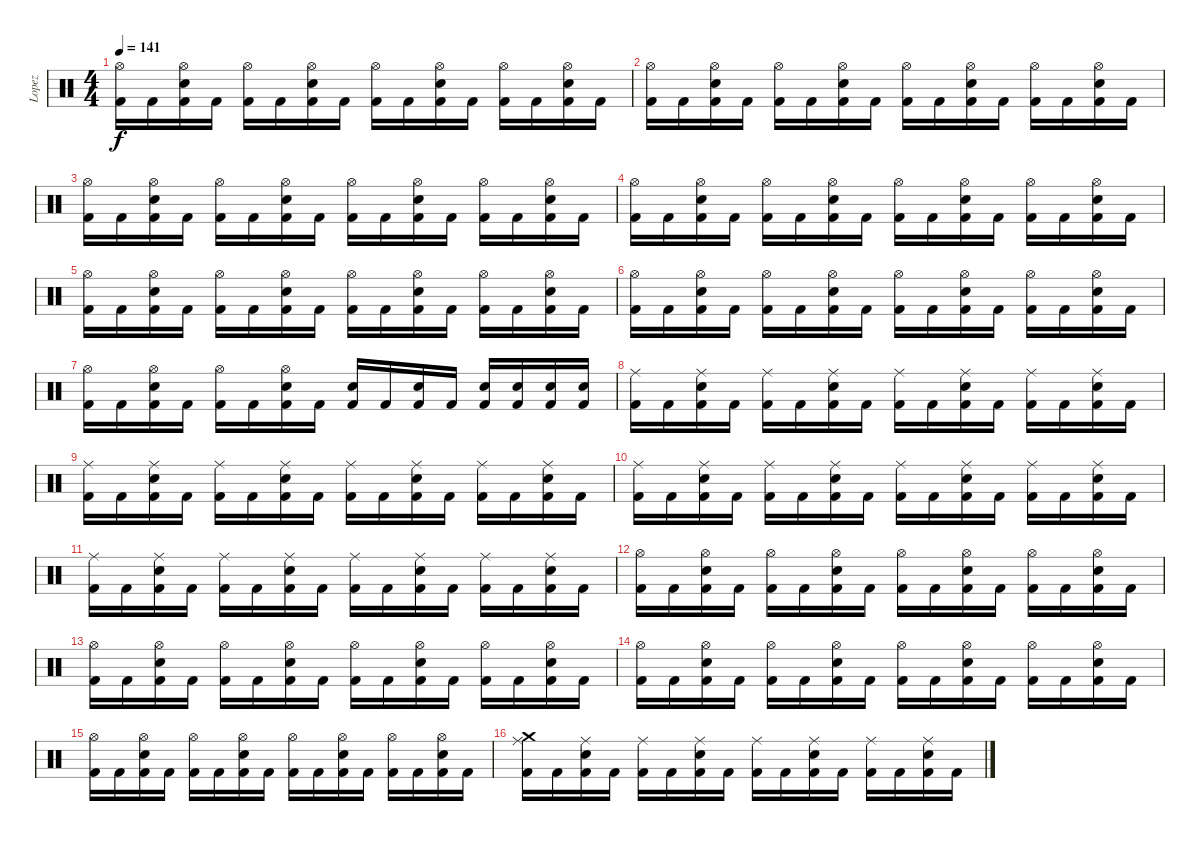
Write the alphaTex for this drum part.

\track ("Lopez" "Lopez") {instrument percussion}
\staff {score}
\articulation defaults
\ts (4 4)
\tempo 141
\clef neutral
\ks c
("Hi-Hat (open)" "Kick (hit) 2").16{dy f} "Kick (hit) 2".16 ("Hi-Hat (open)" "Electric Snare (hit)" "Kick (hit) 2").16 "Kick (hit) 2".16 ("Hi-Hat (open)" "Kick (hit) 2").16 "Kick (hit) 2".16 ("Hi-Hat (open)" "Electric Snare (hit)" "Kick (hit) 2").16 "Kick (hit) 2".16 ("Hi-Hat (open)" "Kick (hit) 2").16 "Kick (hit) 2".16 ("Hi-Hat (open)" "Electric Snare (hit)" "Kick (hit) 2").16 "Kick (hit) 2".16 ("Hi-Hat (open)" "Kick (hit) 2").16 "Kick (hit) 2".16 ("Hi-Hat (open)" "Electric Snare (hit)" "Kick (hit) 2").16 "Kick (hit) 2".16 |
("Hi-Hat (open)" "Kick (hit) 2").16 "Kick (hit) 2".16 ("Hi-Hat (open)" "Electric Snare (hit)" "Kick (hit) 2").16 "Kick (hit) 2".16 ("Hi-Hat (open)" "Kick (hit) 2").16 "Kick (hit) 2".16 ("Hi-Hat (open)" "Electric Snare (hit)" "Kick (hit) 2").16 "Kick (hit) 2".16 ("Hi-Hat (open)" "Kick (hit) 2").16 "Kick (hit) 2".16 ("Hi-Hat (open)" "Electric Snare (hit)" "Kick (hit) 2").16 "Kick (hit) 2".16 ("Hi-Hat (open)" "Kick (hit) 2").16 "Kick (hit) 2".16 ("Hi-Hat (open)" "Electric Snare (hit)" "Kick (hit) 2").16 "Kick (hit) 2".16 |
("Hi-Hat (open)" "Kick (hit) 2").16 "Kick (hit) 2".16 ("Hi-Hat (open)" "Electric Snare (hit)" "Kick (hit) 2").16 "Kick (hit) 2".16 ("Hi-Hat (open)" "Kick (hit) 2").16 "Kick (hit) 2".16 ("Hi-Hat (open)" "Electric Snare (hit)" "Kick (hit) 2").16 "Kick (hit) 2".16 ("Hi-Hat (open)" "Kick (hit) 2").16 "Kick (hit) 2".16 ("Hi-Hat (open)" "Electric Snare (hit)" "Kick (hit) 2").16 "Kick (hit) 2".16 ("Hi-Hat (open)" "Kick (hit) 2").16 "Kick (hit) 2".16 ("Hi-Hat (open)" "Electric Snare (hit)" "Kick (hit) 2").16 "Kick (hit) 2".16 |
("Hi-Hat (open)" "Kick (hit) 2").16 "Kick (hit) 2".16 ("Hi-Hat (open)" "Electric Snare (hit)" "Kick (hit) 2").16 "Kick (hit) 2".16 ("Hi-Hat (open)" "Kick (hit) 2").16 "Kick (hit) 2".16 ("Hi-Hat (open)" "Electric Snare (hit)" "Kick (hit) 2").16 "Kick (hit) 2".16 ("Hi-Hat (open)" "Kick (hit) 2").16 "Kick (hit) 2".16 ("Hi-Hat (open)" "Electric Snare (hit)" "Kick (hit) 2").16 "Kick (hit) 2".16 ("Hi-Hat (open)" "Kick (hit) 2").16 "Kick (hit) 2".16 ("Hi-Hat (open)" "Electric Snare (hit)" "Kick (hit) 2").16 "Kick (hit) 2".16 |
("Hi-Hat (open)" "Kick (hit) 2").16 "Kick (hit) 2".16 ("Hi-Hat (open)" "Electric Snare (hit)" "Kick (hit) 2").16 "Kick (hit) 2".16 ("Hi-Hat (open)" "Kick (hit) 2").16 "Kick (hit) 2".16 ("Hi-Hat (open)" "Electric Snare (hit)" "Kick (hit) 2").16 "Kick (hit) 2".16 ("Hi-Hat (open)" "Kick (hit) 2").16 "Kick (hit) 2".16 ("Hi-Hat (open)" "Electric Snare (hit)" "Kick (hit) 2").16 "Kick (hit) 2".16 ("Hi-Hat (open)" "Kick (hit) 2").16 "Kick (hit) 2".16 ("Hi-Hat (open)" "Electric Snare (hit)" "Kick (hit) 2").16 "Kick (hit) 2".16 |
("Hi-Hat (open)" "Kick (hit) 2").16 "Kick (hit) 2".16 ("Hi-Hat (open)" "Electric Snare (hit)" "Kick (hit) 2").16 "Kick (hit) 2".16 ("Hi-Hat (open)" "Kick (hit) 2").16 "Kick (hit) 2".16 ("Hi-Hat (open)" "Electric Snare (hit)" "Kick (hit) 2").16 "Kick (hit) 2".16 ("Hi-Hat (open)" "Kick (hit) 2").16 "Kick (hit) 2".16 ("Hi-Hat (open)" "Electric Snare (hit)" "Kick (hit) 2").16 "Kick (hit) 2".16 ("Hi-Hat (open)" "Kick (hit) 2").16 "Kick (hit) 2".16 ("Hi-Hat (open)" "Electric Snare (hit)" "Kick (hit) 2").16 "Kick (hit) 2".16 |
("Hi-Hat (open)" "Kick (hit) 2").16 "Kick (hit) 2".16 ("Hi-Hat (open)" "Electric Snare (hit)" "Kick (hit) 2").16 "Kick (hit) 2".16 ("Hi-Hat (open)" "Kick (hit) 2").16 "Kick (hit) 2".16 ("Hi-Hat (open)" "Electric Snare (hit)" "Kick (hit) 2").16 "Kick (hit) 2".16 ("Electric Snare (hit)" "Kick (hit) 2").16 "Kick (hit) 2".16 ("Electric Snare (hit)" "Kick (hit) 2").16 "Kick (hit) 2".16 ("Electric Snare (hit)" "Kick (hit) 2").16 ("Electric Snare (hit)" "Kick (hit) 2").16 ("Electric Snare (hit)" "Kick (hit) 2").16 ("Electric Snare (hit)" "Kick (hit) 2").16 |
("Ride (middle)" "Kick (hit) 2").16 "Kick (hit) 2".16 ("Ride (middle)" "Electric Snare (hit)" "Kick (hit) 2").16 "Kick (hit) 2".16 ("Ride (middle)" "Kick (hit) 2").16 "Kick (hit) 2".16 ("Ride (middle)" "Electric Snare (hit)" "Kick (hit) 2").16 "Kick (hit) 2".16 ("Ride (middle)" "Kick (hit) 2").16 "Kick (hit) 2".16 ("Ride (middle)" "Electric Snare (hit)" "Kick (hit) 2").16 "Kick (hit) 2".16 ("Ride (middle)" "Kick (hit) 2").16 "Kick (hit) 2".16 ("Ride (middle)" "Electric Snare (hit)" "Kick (hit) 2").16 "Kick (hit) 2".16 |
("Ride (middle)" "Kick (hit) 2").16 "Kick (hit) 2".16 ("Ride (middle)" "Electric Snare (hit)" "Kick (hit) 2").16 "Kick (hit) 2".16 ("Ride (middle)" "Kick (hit) 2").16 "Kick (hit) 2".16 ("Ride (middle)" "Electric Snare (hit)" "Kick (hit) 2").16 "Kick (hit) 2".16 ("Ride (middle)" "Kick (hit) 2").16 "Kick (hit) 2".16 ("Ride (middle)" "Electric Snare (hit)" "Kick (hit) 2").16 "Kick (hit) 2".16 ("Ride (middle)" "Kick (hit) 2").16 "Kick (hit) 2".16 ("Ride (middle)" "Electric Snare (hit)" "Kick (hit) 2").16 "Kick (hit) 2".16 |
("Ride (middle)" "Kick (hit) 2").16 "Kick (hit) 2".16 ("Ride (middle)" "Electric Snare (hit)" "Kick (hit) 2").16 "Kick (hit) 2".16 ("Ride (middle)" "Kick (hit) 2").16 "Kick (hit) 2".16 ("Ride (middle)" "Electric Snare (hit)" "Kick (hit) 2").16 "Kick (hit) 2".16 ("Ride (middle)" "Kick (hit) 2").16 "Kick (hit) 2".16 ("Ride (middle)" "Electric Snare (hit)" "Kick (hit) 2").16 "Kick (hit) 2".16 ("Ride (middle)" "Kick (hit) 2").16 "Kick (hit) 2".16 ("Ride (middle)" "Electric Snare (hit)" "Kick (hit) 2").16 "Kick (hit) 2".16 |
("Ride (middle)" "Kick (hit) 2").16 "Kick (hit) 2".16 ("Ride (middle)" "Electric Snare (hit)" "Kick (hit) 2").16 "Kick (hit) 2".16 ("Ride (middle)" "Kick (hit) 2").16 "Kick (hit) 2".16 ("Ride (middle)" "Electric Snare (hit)" "Kick (hit) 2").16 "Kick (hit) 2".16 ("Ride (middle)" "Kick (hit) 2").16 "Kick (hit) 2".16 ("Ride (middle)" "Electric Snare (hit)" "Kick (hit) 2").16 "Kick (hit) 2".16 ("Ride (middle)" "Kick (hit) 2").16 "Kick (hit) 2".16 ("Ride (middle)" "Electric Snare (hit)" "Kick (hit) 2").16 "Kick (hit) 2".16 |
("Hi-Hat (open)" "Kick (hit) 2").16 "Kick (hit) 2".16 ("Hi-Hat (open)" "Electric Snare (hit)" "Kick (hit) 2").16 "Kick (hit) 2".16 ("Hi-Hat (open)" "Kick (hit) 2").16 "Kick (hit) 2".16 ("Hi-Hat (open)" "Electric Snare (hit)" "Kick (hit) 2").16 "Kick (hit) 2".16 ("Hi-Hat (open)" "Kick (hit) 2").16 "Kick (hit) 2".16 ("Hi-Hat (open)" "Electric Snare (hit)" "Kick (hit) 2").16 "Kick (hit) 2".16 ("Hi-Hat (open)" "Kick (hit) 2").16 "Kick (hit) 2".16 ("Hi-Hat (open)" "Electric Snare (hit)" "Kick (hit) 2").16 "Kick (hit) 2".16 |
("Hi-Hat (open)" "Kick (hit) 2").16 "Kick (hit) 2".16 ("Hi-Hat (open)" "Electric Snare (hit)" "Kick (hit) 2").16 "Kick (hit) 2".16 ("Hi-Hat (open)" "Kick (hit) 2").16 "Kick (hit) 2".16 ("Hi-Hat (open)" "Electric Snare (hit)" "Kick (hit) 2").16 "Kick (hit) 2".16 ("Hi-Hat (open)" "Kick (hit) 2").16 "Kick (hit) 2".16 ("Hi-Hat (open)" "Electric Snare (hit)" "Kick (hit) 2").16 "Kick (hit) 2".16 ("Hi-Hat (open)" "Kick (hit) 2").16 "Kick (hit) 2".16 ("Hi-Hat (open)" "Electric Snare (hit)" "Kick (hit) 2").16 "Kick (hit) 2".16 |
("Hi-Hat (open)" "Kick (hit) 2").16 "Kick (hit) 2".16 ("Hi-Hat (open)" "Electric Snare (hit)" "Kick (hit) 2").16 "Kick (hit) 2".16 ("Hi-Hat (open)" "Kick (hit) 2").16 "Kick (hit) 2".16 ("Hi-Hat (open)" "Electric Snare (hit)" "Kick (hit) 2").16 "Kick (hit) 2".16 ("Hi-Hat (open)" "Kick (hit) 2").16 "Kick (hit) 2".16 ("Hi-Hat (open)" "Electric Snare (hit)" "Kick (hit) 2").16 "Kick (hit) 2".16 ("Hi-Hat (open)" "Kick (hit) 2").16 "Kick (hit) 2".16 ("Hi-Hat (open)" "Electric Snare (hit)" "Kick (hit) 2").16 "Kick (hit) 2".16 |
("Hi-Hat (open)" "Kick (hit) 2").16 "Kick (hit) 2".16 ("Hi-Hat (open)" "Electric Snare (hit)" "Kick (hit) 2").16 "Kick (hit) 2".16 ("Hi-Hat (open)" "Kick (hit) 2").16 "Kick (hit) 2".16 ("Hi-Hat (open)" "Electric Snare (hit)" "Kick (hit) 2").16 "Kick (hit) 2".16 ("Hi-Hat (open)" "Kick (hit) 2").16 "Kick (hit) 2".16 ("Hi-Hat (open)" "Electric Snare (hit)" "Kick (hit) 2").16 "Kick (hit) 2".16 ("Hi-Hat (open)" "Kick (hit) 2").16 "Kick (hit) 2".16 ("Hi-Hat (open)" "Electric Snare (hit)" "Kick (hit) 2").16 "Kick (hit) 2".16 |
("Crash medium (hit)" "Ride (middle)" "Kick (hit) 2").16 "Kick (hit) 2".16 ("Ride (middle)" "Electric Snare (hit)" "Kick (hit) 2").16 "Kick (hit) 2".16 ("Ride (middle)" "Kick (hit) 2").16 "Kick (hit) 2".16 ("Ride (middle)" "Electric Snare (hit)" "Kick (hit) 2").16 "Kick (hit) 2".16 ("Ride (middle)" "Kick (hit) 2").16 "Kick (hit) 2".16 ("Ride (middle)" "Electric Snare (hit)" "Kick (hit) 2").16 "Kick (hit) 2".16 ("Ride (middle)" "Kick (hit) 2").16 "Kick (hit) 2".16 ("Ride (middle)" "Electric Snare (hit)" "Kick (hit) 2").16 "Kick (hit) 2".16
